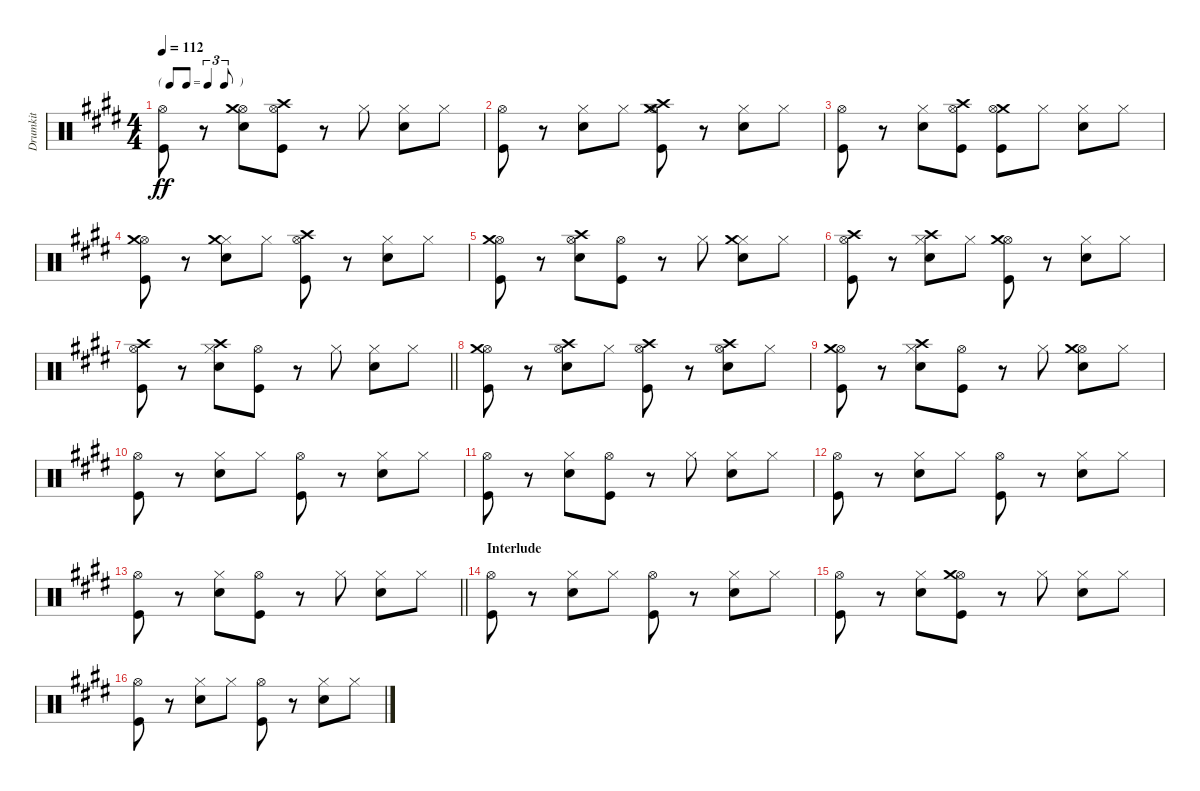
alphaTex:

\track ("Drumkit" "Drumkit") {instrument percussion}
\staff {score}
\articulation defaults
\ts (4 4)
\tf triplet8th
\tempo 112
\clef neutral
\ks e
("Hi-Hat (open)" "Kick (hit)").8{dy ff} r.8 ("Snare (hit) 2" "Hi-Hat (open)" "Crash medium (hit)").8 ("Hi-Hat (open)" "Kick (hit)" "Crash high (hit)").8 r.8 "Hi-Hat (closed)".8 ("Snare (hit) 2" "Hi-Hat (closed)").8 "Hi-Hat (closed)".8 |
("Hi-Hat (open)" "Kick (hit)").8 r.8 ("Snare (hit) 2" "Hi-Hat (closed)").8 "Hi-Hat (closed)".8 ("Kick (hit)" "Hi-Hat (open)" "Crash medium (hit)" "Crash high (hit)").8 r.8 ("Snare (hit) 2" "Hi-Hat (closed)").8 "Hi-Hat (closed)".8 |
("Hi-Hat (open)" "Kick (hit)").8 r.8 ("Snare (hit) 2" "Hi-Hat (closed)").8 ("Hi-Hat (open)" "Kick (hit)" "Crash high (hit)").8 ("Kick (hit)" "Crash medium (hit)" "Hi-Hat (open)").8 "Hi-Hat (closed)".8 ("Snare (hit) 2" "Hi-Hat (closed)").8 "Hi-Hat (closed)".8 |
("Hi-Hat (open)" "Kick (hit)" "Crash medium (hit)").8 r.8 ("Snare (hit) 2" "Hi-Hat (closed)" "Crash medium (hit)").8 "Hi-Hat (closed)".8 ("Hi-Hat (open)" "Kick (hit)" "Crash high (hit)").8 r.8 ("Snare (hit) 2" "Hi-Hat (closed)").8 "Hi-Hat (closed)".8 |
("Hi-Hat (open)" "Kick (hit)" "Crash medium (hit)").8 r.8 ("Snare (hit) 2" "Hi-Hat (open)" "Crash high (hit)").8 ("Kick (hit)" "Hi-Hat (open)").8 r.8 "Hi-Hat (closed)".8 ("Snare (hit) 2" "Hi-Hat (closed)" "Crash medium (hit)").8 "Hi-Hat (closed)".8 |
("Hi-Hat (open)" "Kick (hit)" "Crash high (hit)").8 r.8 ("Snare (hit) 2" "Hi-Hat (closed)" "Crash high (hit)").8 "Hi-Hat (closed)".8 ("Kick (hit)" "Hi-Hat (open)" "Crash medium (hit)").8 r.8 ("Snare (hit) 2" "Hi-Hat (closed)").8 "Hi-Hat (closed)".8 |
\barLineRight lightlight
("Hi-Hat (open)" "Kick (hit)" "Crash high (hit)").8 r.8 ("Snare (hit) 2" "Hi-Hat (closed)" "Crash high (hit)").8 ("Hi-Hat (open)" "Kick (hit)").8 r.8 "Hi-Hat (closed)".8 ("Snare (hit) 2" "Hi-Hat (closed)").8 "Hi-Hat (closed)".8 |
\section ("" "")
("Hi-Hat (open)" "Kick (hit)" "Crash medium (hit)").8 r.8 ("Snare (hit) 2" "Hi-Hat (open)" "Crash high (hit)").8 "Hi-Hat (closed)".8 ("Hi-Hat (open)" "Kick (hit)" "Crash high (hit)").8 r.8 ("Snare (hit) 2" "Hi-Hat (open)" "Crash high (hit)").8 "Hi-Hat (closed)".8 |
("Hi-Hat (open)" "Kick (hit)" "Crash medium (hit)").8 r.8 ("Snare (hit) 2" "Hi-Hat (closed)" "Crash high (hit)").8 ("Hi-Hat (open)" "Kick (hit)").8 r.8 "Hi-Hat (closed)".8 ("Snare (hit) 2" "Hi-Hat (open)" "Crash medium (hit)").8 "Hi-Hat (closed)".8 |
("Kick (hit)" "Hi-Hat (open)").8 r.8 ("Snare (hit) 2" "Hi-Hat (closed)").8 "Hi-Hat (closed)".8 ("Kick (hit)" "Hi-Hat (open)").8 r.8 ("Snare (hit) 2" "Hi-Hat (closed)").8 "Hi-Hat (closed)".8 |
("Hi-Hat (open)" "Kick (hit)").8 r.8 ("Snare (hit) 2" "Hi-Hat (closed)").8 ("Hi-Hat (open)" "Kick (hit)").8 r.8 "Hi-Hat (closed)".8 ("Snare (hit) 2" "Hi-Hat (closed)").8 "Hi-Hat (closed)".8 |
("Hi-Hat (open)" "Kick (hit)").8 r.8 ("Snare (hit) 2" "Hi-Hat (closed)").8 "Hi-Hat (closed)".8 ("Hi-Hat (open)" "Kick (hit)").8 r.8 ("Snare (hit) 2" "Hi-Hat (closed)").8 "Hi-Hat (closed)".8 |
\barLineRight lightlight
("Hi-Hat (open)" "Kick (hit)").8 r.8 ("Snare (hit) 2" "Hi-Hat (closed)").8 ("Hi-Hat (open)" "Kick (hit)").8 r.8 "Hi-Hat (closed)".8 ("Snare (hit) 2" "Hi-Hat (closed)").8 "Hi-Hat (closed)".8 |
\section ("" "Interlude")
("Hi-Hat (open)" "Kick (hit)").8 r.8 ("Snare (hit) 2" "Hi-Hat (closed)").8 "Hi-Hat (closed)".8 ("Hi-Hat (open)" "Kick (hit)").8 r.8 ("Snare (hit) 2" "Hi-Hat (closed)").8 "Hi-Hat (closed)".8 |
("Hi-Hat (open)" "Kick (hit)").8 r.8 ("Snare (hit) 2" "Hi-Hat (closed)").8 ("Hi-Hat (open)" "Kick (hit)" "Crash medium (hit)").8 r.8 "Hi-Hat (closed)".8 ("Snare (hit) 2" "Hi-Hat (closed)").8 "Hi-Hat (closed)".8 |
("Hi-Hat (open)" "Kick (hit)").8 r.8 ("Snare (hit) 2" "Hi-Hat (closed)").8 "Hi-Hat (closed)".8 ("Kick (hit)" "Hi-Hat (open)").8 r.8 ("Snare (hit) 2" "Hi-Hat (closed)").8 "Hi-Hat (closed)".8
